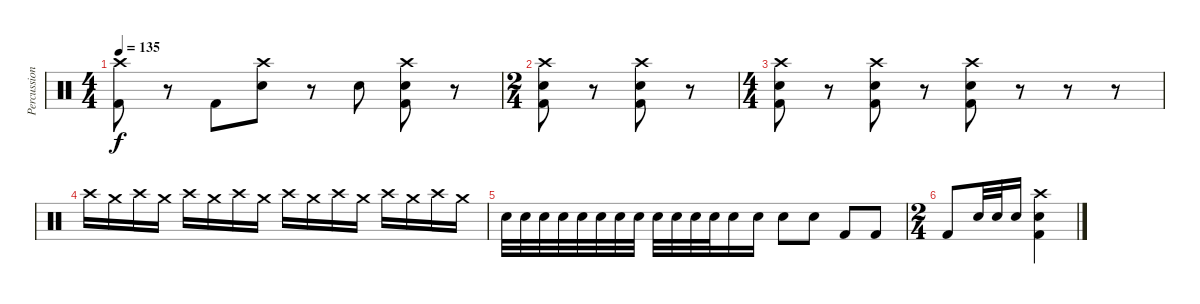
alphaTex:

\track ("Percussion" "Percussion") {instrument percussion}
\staff {score}
\articulation defaults
\ts (4 4)
\tempo 135
\clef neutral
\ks c
("Crash high (hit)" "Kick (hit) 2").8{dy f} r.8 "Kick (hit) 2".8 ("Crash high (hit)" "Electric Snare (hit)").8 r.8 "Electric Snare (hit)".8 ("Crash high (hit)" "Electric Snare (hit)" "Kick (hit) 2").8 r.8 |
\ts (2 4)
("Crash high (hit)" "Electric Snare (hit)" "Kick (hit) 2").8 r.8 ("Crash high (hit)" "Electric Snare (hit)" "Kick (hit) 2").8 r.8 |
\ts (4 4)
("Crash high (hit)" "Electric Snare (hit)" "Kick (hit) 2").8 r.8 ("Crash high (hit)" "Electric Snare (hit)" "Kick (hit) 2").8 r.8 ("Crash high (hit)" "Electric Snare (hit)" "Kick (hit) 2").8 r.8 r.8 r.8 |
"Crash high (hit)".16 "Crash medium (hit)".16 "Crash high (hit)".16 "Crash medium (hit)".16 "Crash high (hit)".16 "Crash medium (hit)".16 "Crash high (hit)".16 "Crash medium (hit)".16 "Crash high (hit)".16 "Crash medium (hit)".16 "Crash high (hit)".16 "Crash medium (hit)".16 "Crash high (hit)".16 "Crash medium (hit)".16 "Crash high (hit)".16 "Crash medium (hit)".16 |
"Electric Snare (hit)".32 "Electric Snare (hit)".32 "Electric Snare (hit)".32 "Electric Snare (hit)".32 "Electric Snare (hit)".32 "Electric Snare (hit)".32 "Electric Snare (hit)".32 "Electric Snare (hit)".32 "Electric Snare (hit)".32 "Electric Snare (hit)".32 "Electric Snare (hit)".32 "Electric Snare (hit)".32 "Electric Snare (hit)".16 "Electric Snare (hit)".16 "Electric Snare (hit)".8 "Electric Snare (hit)".8 "Kick (hit) 2".8 "Kick (hit) 2".8 |
\ts (2 4)
"Kick (hit) 2".8 "Electric Snare (hit)".32 "Electric Snare (hit)".32 "Electric Snare (hit)".16 ("Crash high (hit)" "Electric Snare (hit)" "Kick (hit) 2").4
